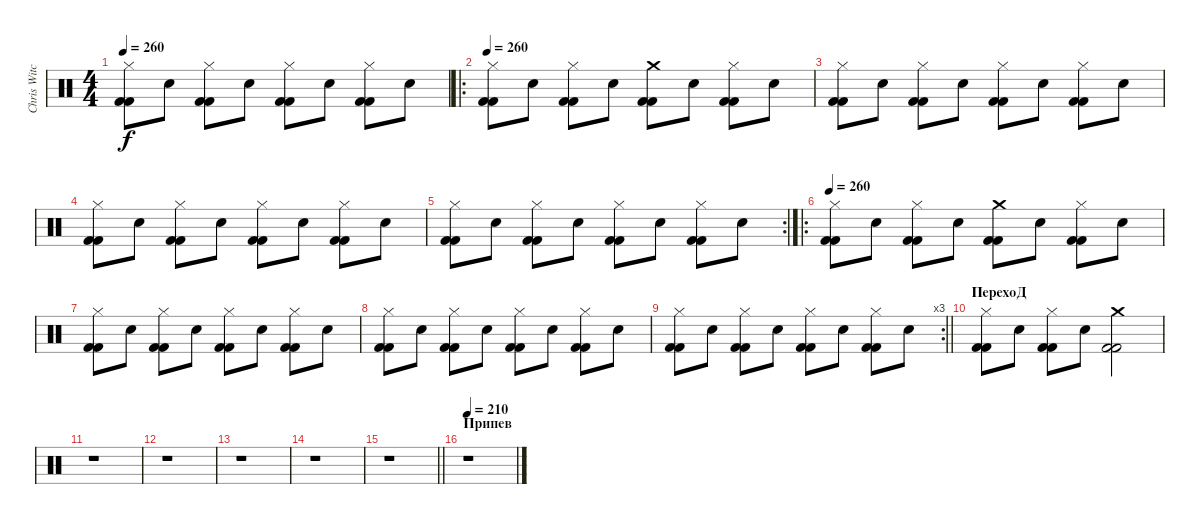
\track ("Chris Witchhunter" "Chris Witc") {instrument percussion}
\staff {score}
\articulation defaults
\ts (4 4)
\tempo 260
\clef neutral
\ks c
("Hi-Hat (closed)" "Kick (hit) 2" "Kick (hit) 2").8{dy f} "Electric Snare (hit)".8 ("Hi-Hat (closed)" "Kick (hit) 2" "Kick (hit) 2").8 "Electric Snare (hit)".8 ("Hi-Hat (closed)" "Kick (hit) 2" "Kick (hit) 2").8 "Electric Snare (hit)".8 ("Hi-Hat (closed)" "Kick (hit) 2" "Kick (hit) 2").8 "Electric Snare (hit)".8 |
\ro
\tempo 260
("Hi-Hat (closed)" "Kick (hit) 2" "Kick (hit) 2").8 "Electric Snare (hit)".8 ("Hi-Hat (closed)" "Kick (hit) 2" "Kick (hit) 2").8 "Electric Snare (hit)".8 ("Crash medium (hit)" "Kick (hit) 2" "Kick (hit) 2").8 "Electric Snare (hit)".8 ("Hi-Hat (closed)" "Kick (hit) 2" "Kick (hit) 2").8 "Electric Snare (hit)".8 |
("Hi-Hat (closed)" "Kick (hit) 2" "Kick (hit) 2").8 "Electric Snare (hit)".8 ("Hi-Hat (closed)" "Kick (hit) 2" "Kick (hit) 2").8 "Electric Snare (hit)".8 ("Hi-Hat (closed)" "Kick (hit) 2" "Kick (hit) 2").8 "Electric Snare (hit)".8 ("Hi-Hat (closed)" "Kick (hit) 2" "Kick (hit) 2").8 "Electric Snare (hit)".8 |
("Hi-Hat (closed)" "Kick (hit) 2" "Kick (hit) 2").8 "Electric Snare (hit)".8 ("Hi-Hat (closed)" "Kick (hit) 2" "Kick (hit) 2").8 "Electric Snare (hit)".8 ("Hi-Hat (closed)" "Kick (hit) 2" "Kick (hit) 2").8 "Electric Snare (hit)".8 ("Hi-Hat (closed)" "Kick (hit) 2" "Kick (hit) 2").8 "Electric Snare (hit)".8 |
\rc 2
("Hi-Hat (closed)" "Kick (hit) 2" "Kick (hit) 2").8 "Electric Snare (hit)".8 ("Hi-Hat (closed)" "Kick (hit) 2" "Kick (hit) 2").8 "Electric Snare (hit)".8 ("Hi-Hat (closed)" "Kick (hit) 2" "Kick (hit) 2").8 "Electric Snare (hit)".8 ("Hi-Hat (closed)" "Kick (hit) 2" "Kick (hit) 2").8 "Electric Snare (hit)".8 |
\ro
\tempo 260
("Hi-Hat (closed)" "Kick (hit) 2" "Kick (hit) 2").8 "Electric Snare (hit)".8 ("Hi-Hat (closed)" "Kick (hit) 2" "Kick (hit) 2").8 "Electric Snare (hit)".8 ("Crash medium (hit)" "Kick (hit) 2" "Kick (hit) 2").8 "Electric Snare (hit)".8 ("Hi-Hat (closed)" "Kick (hit) 2" "Kick (hit) 2").8 "Electric Snare (hit)".8 |
("Hi-Hat (closed)" "Kick (hit) 2" "Kick (hit) 2").8 "Electric Snare (hit)".8 ("Hi-Hat (closed)" "Kick (hit) 2" "Kick (hit) 2").8 "Electric Snare (hit)".8 ("Hi-Hat (closed)" "Kick (hit) 2" "Kick (hit) 2").8 "Electric Snare (hit)".8 ("Hi-Hat (closed)" "Kick (hit) 2" "Kick (hit) 2").8 "Electric Snare (hit)".8 |
("Hi-Hat (closed)" "Kick (hit) 2" "Kick (hit) 2").8 "Electric Snare (hit)".8 ("Hi-Hat (closed)" "Kick (hit) 2" "Kick (hit) 2").8 "Electric Snare (hit)".8 ("Hi-Hat (closed)" "Kick (hit) 2" "Kick (hit) 2").8 "Electric Snare (hit)".8 ("Hi-Hat (closed)" "Kick (hit) 2" "Kick (hit) 2").8 "Electric Snare (hit)".8 |
\rc 3
\barLineRight lightlight
("Hi-Hat (closed)" "Kick (hit) 2" "Kick (hit) 2").8 "Electric Snare (hit)".8 ("Hi-Hat (closed)" "Kick (hit) 2" "Kick (hit) 2").8 "Electric Snare (hit)".8 ("Hi-Hat (closed)" "Kick (hit) 2" "Kick (hit) 2").8 "Electric Snare (hit)".8 ("Hi-Hat (closed)" "Kick (hit) 2" "Kick (hit) 2").8 "Electric Snare (hit)".8 |
\section ("" "ПерехоД")
("Hi-Hat (closed)" "Kick (hit) 2" "Kick (hit) 2").8 "Electric Snare (hit)".8 ("Hi-Hat (closed)" "Kick (hit) 2" "Kick (hit) 2").8 "Electric Snare (hit)".8 ("Crash medium (hit)" "Kick (hit) 2" "Kick (hit) 2").2 |
r.1 |
r.1 |
r.1 |
r.1 |
\barLineRight lightlight
r.1 |
\section ("" "Припев")
\tempo 210
r.1
